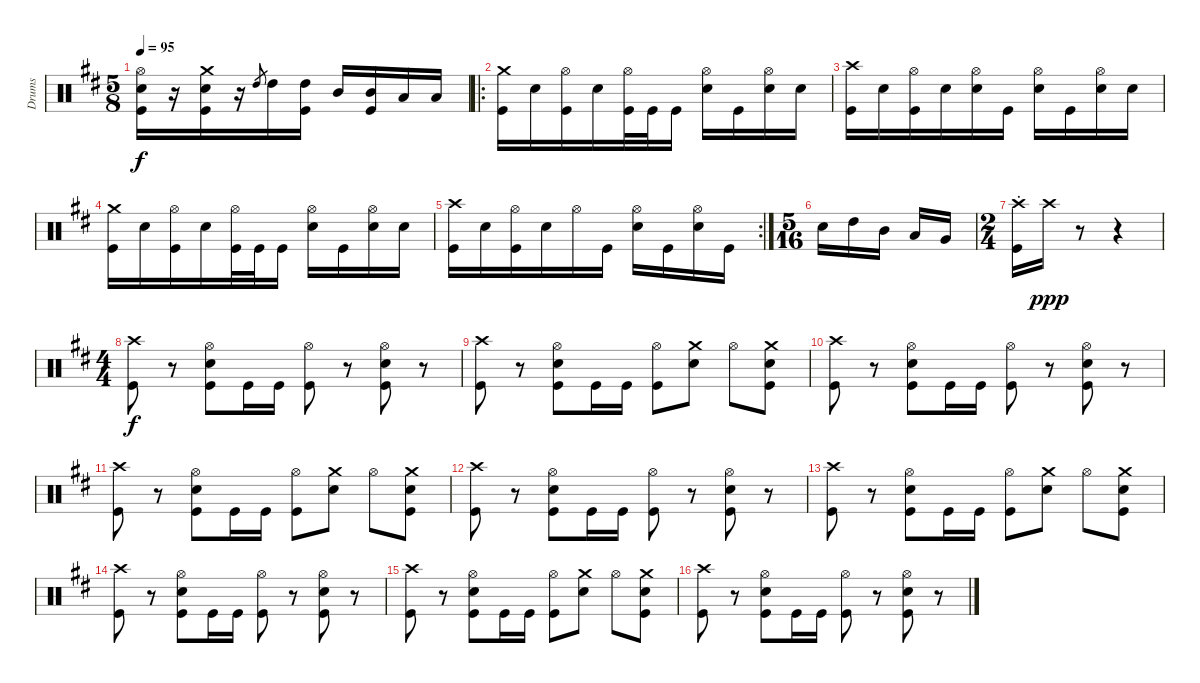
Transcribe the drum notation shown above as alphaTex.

\track ("Drums" "Drums") {instrument percussion}
\staff {score}
\articulation defaults
\ts (5 8)
\tempo 95
\clef neutral
\ks bminor
("Hi-Hat (open)" "Snare (hit) 2" "Kick (hit)").16{dy f} r.16 ("Crash medium (hit)" "Snare (hit) 2" "Kick (hit)").16 r.16 "High Tom (hit)".8{gr} "High Tom (hit)".16 ("High Tom (hit)" "Kick (hit)").16 "Mid Tom (hit)".16 ("Mid Tom (hit)" "Kick (hit)").16 "Low Tom (hit)".16 "Low Tom (hit)".16 |
\ro
("Crash medium (hit)" "Kick (hit)").16 "Snare (hit) 2".16 ("Hi-Hat (open)" "Kick (hit)").16 "Snare (hit) 2".16 ("Hi-Hat (open)" "Kick (hit)").32 "Kick (hit)".32 "Kick (hit)".16 ("Hi-Hat (open)" "Snare (hit) 2").16 "Kick (hit)".16 ("Hi-Hat (open)" "Snare (hit) 2").16 "Snare (hit) 2".16 |
("Crash high (hit)" "Kick (hit)").16 "Snare (hit) 2".16 ("Hi-Hat (open)" "Kick (hit)").16 "Snare (hit) 2".16 ("Hi-Hat (open)" "Snare (hit) 2").16 "Kick (hit)".16 ("Hi-Hat (open)" "Snare (hit) 2").16 "Kick (hit)".16 ("Hi-Hat (open)" "Snare (hit) 2").16 "Snare (hit) 2".16 |
("Crash medium (hit)" "Kick (hit)").16 "Snare (hit) 2".16 ("Hi-Hat (open)" "Kick (hit)").16 "Snare (hit) 2".16 ("Hi-Hat (open)" "Kick (hit)").32 "Kick (hit)".32 "Kick (hit)".16 ("Hi-Hat (open)" "Snare (hit) 2").16 "Kick (hit)".16 ("Hi-Hat (open)" "Snare (hit) 2").16 "Snare (hit) 2".16 |
\rc 2
("Crash high (hit)" "Kick (hit)").16 "Snare (hit) 2".16 ("Hi-Hat (open)" "Kick (hit)").16 "Snare (hit) 2".16 "Hi-Hat (open)".16 "Kick (hit)".16 ("Hi-Hat (open)" "Snare (hit) 2").16 "Kick (hit)".16 ("Hi-Hat (open)" "Snare (hit) 2").16 "Kick (hit)".16 |
\ts (5 16)
"Electric Snare (hit)".16 "High Tom (hit)".16 "Mid Tom (hit)".16 "Low Tom (hit)".16 "Very Low Tom (hit)".16 |
\ts (2 4)
("Crash high (hit)"{st} "Kick (hit)"{st}).16 "Crash high (hit)".16{dy ppp} r.8 r.4 |
\ts (4 4)
("Crash high (hit)" "Kick (hit)").8{dy f} r.8 ("Hi-Hat (open)" "Snare (hit) 2" "Kick (hit)").8 "Kick (hit)".16 "Kick (hit)".16 ("Hi-Hat (open)" "Kick (hit)").8 r.8 ("Hi-Hat (open)" "Snare (hit) 2" "Kick (hit)").8 r.8 |
("Crash high (hit)" "Kick (hit)").8 r.8 ("Hi-Hat (open)" "Snare (hit) 2" "Kick (hit)").8 "Kick (hit)".16 "Kick (hit)".16 ("Hi-Hat (open)" "Kick (hit)").8 ("Crash medium (hit)" "Snare (hit) 2").8 "Hi-Hat (open)".8 ("Crash medium (hit)" "Snare (hit) 2" "Kick (hit)").8 |
("Crash high (hit)" "Kick (hit)").8 r.8 ("Hi-Hat (open)" "Snare (hit) 2" "Kick (hit)").8 "Kick (hit)".16 "Kick (hit)".16 ("Hi-Hat (open)" "Kick (hit)").8 r.8 ("Hi-Hat (open)" "Snare (hit) 2" "Kick (hit)").8 r.8 |
("Crash high (hit)" "Kick (hit)").8 r.8 ("Hi-Hat (open)" "Snare (hit) 2" "Kick (hit)").8 "Kick (hit)".16 "Kick (hit)".16 ("Hi-Hat (open)" "Kick (hit)").8 ("Crash medium (hit)" "Snare (hit) 2").8 "Hi-Hat (open)".8 ("Crash medium (hit)" "Snare (hit) 2" "Kick (hit)").8 |
("Crash high (hit)" "Kick (hit)").8 r.8 ("Hi-Hat (open)" "Snare (hit) 2" "Kick (hit)").8 "Kick (hit)".16 "Kick (hit)".16 ("Hi-Hat (open)" "Kick (hit)").8 r.8 ("Hi-Hat (open)" "Snare (hit) 2" "Kick (hit)").8 r.8 |
("Crash high (hit)" "Kick (hit)").8 r.8 ("Hi-Hat (open)" "Snare (hit) 2" "Kick (hit)").8 "Kick (hit)".16 "Kick (hit)".16 ("Hi-Hat (open)" "Kick (hit)").8 ("Crash medium (hit)" "Snare (hit) 2").8 "Hi-Hat (open)".8 ("Crash medium (hit)" "Snare (hit) 2" "Kick (hit)").8 |
("Crash high (hit)" "Kick (hit)").8 r.8 ("Hi-Hat (open)" "Snare (hit) 2" "Kick (hit)").8 "Kick (hit)".16 "Kick (hit)".16 ("Hi-Hat (open)" "Kick (hit)").8 r.8 ("Hi-Hat (open)" "Snare (hit) 2" "Kick (hit)").8 r.8 |
("Crash high (hit)" "Kick (hit)").8 r.8 ("Hi-Hat (open)" "Snare (hit) 2" "Kick (hit)").8 "Kick (hit)".16 "Kick (hit)".16 ("Hi-Hat (open)" "Kick (hit)").8 ("Crash medium (hit)" "Snare (hit) 2").8 "Hi-Hat (open)".8 ("Crash medium (hit)" "Snare (hit) 2" "Kick (hit)").8 |
("Crash high (hit)" "Kick (hit)").8 r.8 ("Hi-Hat (open)" "Snare (hit) 2" "Kick (hit)").8 "Kick (hit)".16 "Kick (hit)".16 ("Hi-Hat (open)" "Kick (hit)").8 r.8 ("Hi-Hat (open)" "Snare (hit) 2" "Kick (hit)").8 r.8
